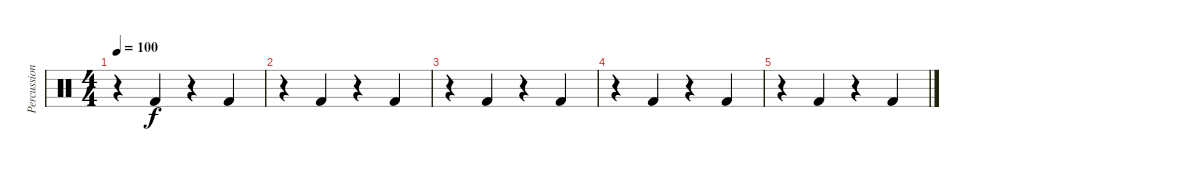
\track ("Percussion" "Percussion") {instrument percussion}
\staff {score}
\articulation defaults
\ts (4 4)
\tempo 100
\clef neutral
\ks c
r.4{dy f} "Kick (hit) 2".4 r.4 "Kick (hit) 2".4 |
r.4 "Kick (hit) 2".4 r.4 "Kick (hit) 2".4 |
r.4 "Kick (hit) 2".4 r.4 "Kick (hit) 2".4 |
r.4 "Kick (hit) 2".4 r.4 "Kick (hit) 2".4 |
r.4 "Kick (hit) 2".4 r.4 "Kick (hit) 2".4
